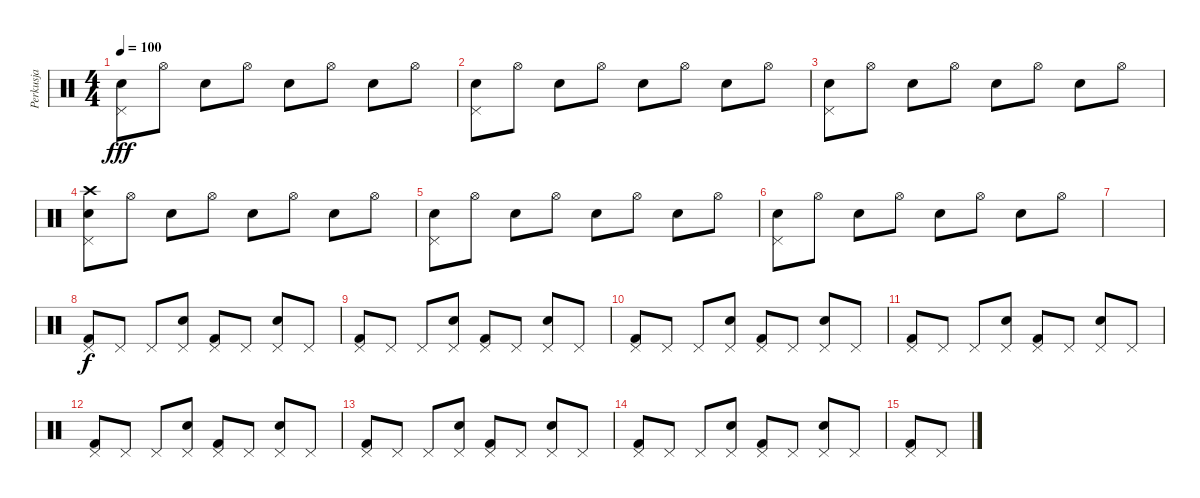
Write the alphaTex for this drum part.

\track ("Perkusja" "Perkusja") {instrument percussion}
\staff {score}
\articulation defaults
\ts (4 4)
\tempo 100
\clef neutral
\ks c
("Electric Snare (hit)" "Pedal Hi-Hat (hit)").8{dy fff} "Hi-Hat (open)".8 "Electric Snare (hit)".8 "Hi-Hat (open)".8 "Electric Snare (hit)".8 "Hi-Hat (open)".8 "Electric Snare (hit)".8 "Hi-Hat (open)".8 |
("Electric Snare (hit)" "Pedal Hi-Hat (hit)").8 "Hi-Hat (open)".8 "Electric Snare (hit)".8 "Hi-Hat (open)".8 "Electric Snare (hit)".8 "Hi-Hat (open)".8 "Electric Snare (hit)".8 "Hi-Hat (open)".8 |
("Electric Snare (hit)" "Pedal Hi-Hat (hit)").8 "Hi-Hat (open)".8 "Electric Snare (hit)".8 "Hi-Hat (open)".8 "Electric Snare (hit)".8 "Hi-Hat (open)".8 "Electric Snare (hit)".8 "Hi-Hat (open)".8 |
("Electric Snare (hit)" "Pedal Hi-Hat (hit)" "Crash high (hit)").8 "Hi-Hat (open)".8 "Electric Snare (hit)".8 "Hi-Hat (open)".8 "Electric Snare (hit)".8 "Hi-Hat (open)".8 "Electric Snare (hit)".8 "Hi-Hat (open)".8 |
("Electric Snare (hit)" "Pedal Hi-Hat (hit)").8 "Hi-Hat (open)".8 "Electric Snare (hit)".8 "Hi-Hat (open)".8 "Electric Snare (hit)".8 "Hi-Hat (open)".8 "Electric Snare (hit)".8 "Hi-Hat (open)".8 |
("Electric Snare (hit)" "Pedal Hi-Hat (hit)").8 "Hi-Hat (open)".8 "Electric Snare (hit)".8 "Hi-Hat (open)".8 "Electric Snare (hit)".8 "Hi-Hat (open)".8 "Electric Snare (hit)".8 "Hi-Hat (open)".8 |
|
("Pedal Hi-Hat (hit)" "Kick (hit) 2").8{dy f} "Pedal Hi-Hat (hit)".8 "Pedal Hi-Hat (hit)".8 ("Pedal Hi-Hat (hit)" "Snare (hit) 2").8 ("Pedal Hi-Hat (hit)" "Kick (hit) 2").8 "Pedal Hi-Hat (hit)".8 ("Pedal Hi-Hat (hit)" "Snare (hit) 2").8 "Pedal Hi-Hat (hit)".8 |
("Pedal Hi-Hat (hit)" "Kick (hit) 2").8 "Pedal Hi-Hat (hit)".8 "Pedal Hi-Hat (hit)".8 ("Pedal Hi-Hat (hit)" "Snare (hit) 2").8 ("Pedal Hi-Hat (hit)" "Kick (hit) 2").8 "Pedal Hi-Hat (hit)".8 ("Pedal Hi-Hat (hit)" "Snare (hit) 2").8 "Pedal Hi-Hat (hit)".8 |
("Pedal Hi-Hat (hit)" "Kick (hit) 2").8 "Pedal Hi-Hat (hit)".8 "Pedal Hi-Hat (hit)".8 ("Pedal Hi-Hat (hit)" "Snare (hit) 2").8 ("Pedal Hi-Hat (hit)" "Kick (hit) 2").8 "Pedal Hi-Hat (hit)".8 ("Pedal Hi-Hat (hit)" "Snare (hit) 2").8 "Pedal Hi-Hat (hit)".8 |
("Pedal Hi-Hat (hit)" "Kick (hit) 2").8 "Pedal Hi-Hat (hit)".8 "Pedal Hi-Hat (hit)".8 ("Pedal Hi-Hat (hit)" "Snare (hit) 2").8 ("Pedal Hi-Hat (hit)" "Kick (hit) 2").8 "Pedal Hi-Hat (hit)".8 ("Pedal Hi-Hat (hit)" "Snare (hit) 2").8 "Pedal Hi-Hat (hit)".8 |
("Pedal Hi-Hat (hit)" "Kick (hit) 2").8 "Pedal Hi-Hat (hit)".8 "Pedal Hi-Hat (hit)".8 ("Pedal Hi-Hat (hit)" "Snare (hit) 2").8 ("Pedal Hi-Hat (hit)" "Kick (hit) 2").8 "Pedal Hi-Hat (hit)".8 ("Pedal Hi-Hat (hit)" "Snare (hit) 2").8 "Pedal Hi-Hat (hit)".8 |
("Pedal Hi-Hat (hit)" "Kick (hit) 2").8 "Pedal Hi-Hat (hit)".8 "Pedal Hi-Hat (hit)".8 ("Pedal Hi-Hat (hit)" "Snare (hit) 2").8 ("Pedal Hi-Hat (hit)" "Kick (hit) 2").8 "Pedal Hi-Hat (hit)".8 ("Pedal Hi-Hat (hit)" "Snare (hit) 2").8 "Pedal Hi-Hat (hit)".8 |
("Pedal Hi-Hat (hit)" "Kick (hit) 2").8 "Pedal Hi-Hat (hit)".8 "Pedal Hi-Hat (hit)".8 ("Pedal Hi-Hat (hit)" "Snare (hit) 2").8 ("Pedal Hi-Hat (hit)" "Kick (hit) 2").8 "Pedal Hi-Hat (hit)".8 ("Pedal Hi-Hat (hit)" "Snare (hit) 2").8 "Pedal Hi-Hat (hit)".8 |
("Pedal Hi-Hat (hit)" "Kick (hit) 2").8 "Pedal Hi-Hat (hit)".8
